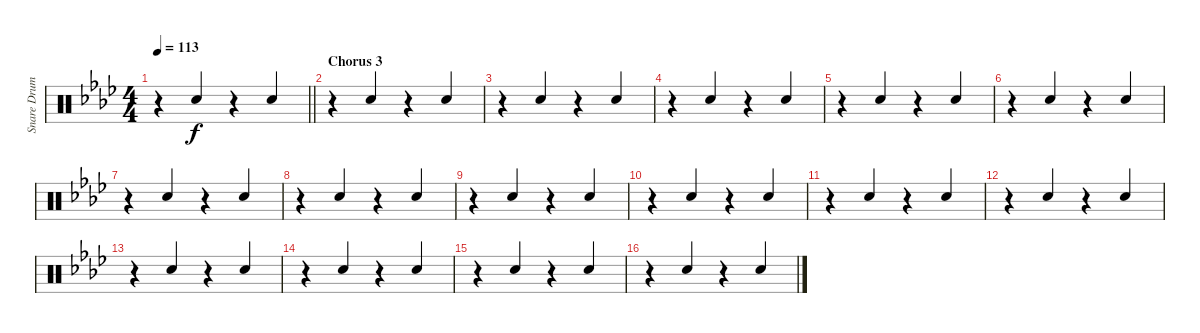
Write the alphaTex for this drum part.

\track ("Snare Drum - reverb" "Snare Drum") {instrument percussion}
\staff {score}
\articulation defaults
\ts (4 4)
\tempo 113
\clef neutral
\barLineRight lightlight
\ks fminor
r.4{dy f} "Snare (hit) 2".4{beam Up} r.4 "Snare (hit) 2".4{beam Up} |
\section ("" "Chorus 3")
r.4 "Snare (hit) 2".4{beam Up} r.4 "Snare (hit) 2".4{beam Up} |
r.4 "Snare (hit) 2".4{beam Up} r.4 "Snare (hit) 2".4{beam Up} |
r.4 "Snare (hit) 2".4{beam Up} r.4 "Snare (hit) 2".4{beam Up} |
r.4 "Snare (hit) 2".4{beam Up} r.4 "Snare (hit) 2".4{beam Up} |
r.4 "Snare (hit) 2".4{beam Up} r.4 "Snare (hit) 2".4{beam Up} |
r.4 "Snare (hit) 2".4{beam Up} r.4 "Snare (hit) 2".4{beam Up} |
r.4 "Snare (hit) 2".4{beam Up} r.4 "Snare (hit) 2".4{beam Up} |
r.4 "Snare (hit) 2".4{beam Up} r.4 "Snare (hit) 2".4{beam Up} |
r.4 "Snare (hit) 2".4{beam Up} r.4 "Snare (hit) 2".4{beam Up} |
r.4 "Snare (hit) 2".4{beam Up} r.4 "Snare (hit) 2".4{beam Up} |
r.4 "Snare (hit) 2".4{beam Up} r.4 "Snare (hit) 2".4{beam Up} |
r.4 "Snare (hit) 2".4{beam Up} r.4 "Snare (hit) 2".4{beam Up} |
r.4 "Snare (hit) 2".4{beam Up} r.4 "Snare (hit) 2".4{beam Up} |
r.4 "Snare (hit) 2".4{beam Up} r.4 "Snare (hit) 2".4{beam Up} |
r.4 "Snare (hit) 2".4{beam Up} r.4 "Snare (hit) 2".4{beam Up}
